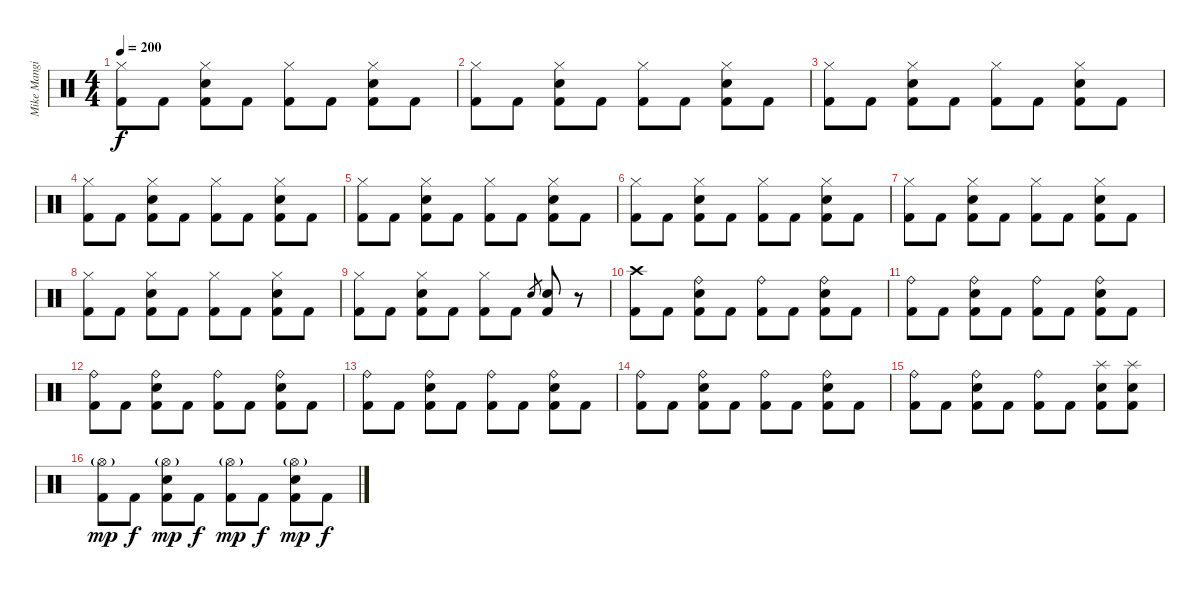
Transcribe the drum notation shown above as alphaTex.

\track ("Mike Mangini" "Mike Mangi") {instrument percussion}
\staff {score}
\articulation defaults
\ts (4 4)
\tempo 200
\clef neutral
\ks c
("Hi-Hat (closed)" "Kick (hit) 2").8{dy f} "Kick (hit) 2".8 ("Hi-Hat (closed)" "Electric Snare (hit)" "Kick (hit) 2").8 "Kick (hit) 2".8 ("Hi-Hat (closed)" "Kick (hit) 2").8 "Kick (hit) 2".8 ("Hi-Hat (closed)" "Electric Snare (hit)" "Kick (hit) 2").8 "Kick (hit) 2".8 |
("Hi-Hat (closed)" "Kick (hit) 2").8 "Kick (hit) 2".8 ("Hi-Hat (closed)" "Electric Snare (hit)" "Kick (hit) 2").8 "Kick (hit) 2".8 ("Hi-Hat (closed)" "Kick (hit) 2").8 "Kick (hit) 2".8 ("Hi-Hat (closed)" "Electric Snare (hit)" "Kick (hit) 2").8 "Kick (hit) 2".8 |
("Hi-Hat (closed)" "Kick (hit) 2").8 "Kick (hit) 2".8 ("Hi-Hat (closed)" "Electric Snare (hit)" "Kick (hit) 2").8 "Kick (hit) 2".8 ("Hi-Hat (closed)" "Kick (hit) 2").8 "Kick (hit) 2".8 ("Hi-Hat (closed)" "Electric Snare (hit)" "Kick (hit) 2").8 "Kick (hit) 2".8 |
("Hi-Hat (closed)" "Kick (hit) 2").8 "Kick (hit) 2".8 ("Hi-Hat (closed)" "Electric Snare (hit)" "Kick (hit) 2").8 "Kick (hit) 2".8 ("Hi-Hat (closed)" "Kick (hit) 2").8 "Kick (hit) 2".8 ("Hi-Hat (closed)" "Electric Snare (hit)" "Kick (hit) 2").8 "Kick (hit) 2".8 |
("Hi-Hat (closed)" "Kick (hit) 2").8 "Kick (hit) 2".8 ("Hi-Hat (closed)" "Electric Snare (hit)" "Kick (hit) 2").8 "Kick (hit) 2".8 ("Hi-Hat (closed)" "Kick (hit) 2").8 "Kick (hit) 2".8 ("Hi-Hat (closed)" "Electric Snare (hit)" "Kick (hit) 2").8 "Kick (hit) 2".8 |
("Hi-Hat (closed)" "Kick (hit) 2").8 "Kick (hit) 2".8 ("Hi-Hat (closed)" "Electric Snare (hit)" "Kick (hit) 2").8 "Kick (hit) 2".8 ("Hi-Hat (closed)" "Kick (hit) 2").8 "Kick (hit) 2".8 ("Hi-Hat (closed)" "Electric Snare (hit)" "Kick (hit) 2").8 "Kick (hit) 2".8 |
("Hi-Hat (closed)" "Kick (hit) 2").8 "Kick (hit) 2".8 ("Hi-Hat (closed)" "Electric Snare (hit)" "Kick (hit) 2").8 "Kick (hit) 2".8 ("Hi-Hat (closed)" "Kick (hit) 2").8 "Kick (hit) 2".8 ("Hi-Hat (closed)" "Electric Snare (hit)" "Kick (hit) 2").8 "Kick (hit) 2".8 |
("Hi-Hat (closed)" "Kick (hit) 2").8 "Kick (hit) 2".8 ("Hi-Hat (closed)" "Electric Snare (hit)" "Kick (hit) 2").8 "Kick (hit) 2".8 ("Hi-Hat (closed)" "Kick (hit) 2").8 "Kick (hit) 2".8 ("Hi-Hat (closed)" "Electric Snare (hit)" "Kick (hit) 2").8 "Kick (hit) 2".8 |
("Hi-Hat (closed)" "Kick (hit) 2").8 "Kick (hit) 2".8 ("Hi-Hat (closed)" "Electric Snare (hit)" "Kick (hit) 2").8 "Kick (hit) 2".8 ("Hi-Hat (closed)" "Kick (hit) 2").8 "Kick (hit) 2".8 "Electric Snare (hit)".8{gr} ("Electric Snare (hit)" "Kick (hit) 2").8 r.8 |
("Crash high (hit)" "Kick (hit) 2").8 "Kick (hit) 2".8 ("Ride (bell)" "Electric Snare (hit)" "Kick (hit) 2").8 "Kick (hit) 2".8 ("Ride (bell)" "Kick (hit) 2").8 "Kick (hit) 2".8 ("Ride (bell)" "Electric Snare (hit)" "Kick (hit) 2").8 "Kick (hit) 2".8 |
("Ride (bell)" "Kick (hit) 2").8 "Kick (hit) 2".8 ("Ride (bell)" "Electric Snare (hit)" "Kick (hit) 2").8 "Kick (hit) 2".8 ("Ride (bell)" "Kick (hit) 2").8 "Kick (hit) 2".8 ("Ride (bell)" "Electric Snare (hit)" "Kick (hit) 2").8 "Kick (hit) 2".8 |
("Ride (bell)" "Kick (hit) 2").8 "Kick (hit) 2".8 ("Ride (bell)" "Electric Snare (hit)" "Kick (hit) 2").8 "Kick (hit) 2".8 ("Ride (bell)" "Kick (hit) 2").8 "Kick (hit) 2".8 ("Ride (bell)" "Electric Snare (hit)" "Kick (hit) 2").8 "Kick (hit) 2".8 |
("Ride (bell)" "Kick (hit) 2").8 "Kick (hit) 2".8 ("Ride (bell)" "Electric Snare (hit)" "Kick (hit) 2").8 "Kick (hit) 2".8 ("Ride (bell)" "Kick (hit) 2").8 "Kick (hit) 2".8 ("Ride (bell)" "Electric Snare (hit)" "Kick (hit) 2").8 "Kick (hit) 2".8 |
("Ride (bell)" "Kick (hit) 2").8 "Kick (hit) 2".8 ("Ride (bell)" "Electric Snare (hit)" "Kick (hit) 2").8 "Kick (hit) 2".8 ("Ride (bell)" "Kick (hit) 2").8 "Kick (hit) 2".8 ("Ride (bell)" "Electric Snare (hit)" "Kick (hit) 2").8 "Kick (hit) 2".8 |
("Ride (bell)" "Kick (hit) 2").8 "Kick (hit) 2".8 ("Ride (bell)" "Electric Snare (hit)" "Kick (hit) 2").8 "Kick (hit) 2".8 ("Ride (bell)" "Kick (hit) 2").8 "Kick (hit) 2".8 ("Splash (hit)" "Electric Snare (hit)" "Kick (hit) 2").8 ("Splash (hit)" "Electric Snare (hit)" "Kick (hit) 2").8 |
("Hi-Hat (open)"{g} "Kick (hit) 2").8{dy mp} "Kick (hit) 2".8{dy f} ("Hi-Hat (open)"{g} "Electric Snare (hit)" "Kick (hit) 2").8{dy mp} "Kick (hit) 2".8{dy f} ("Hi-Hat (open)"{g} "Kick (hit) 2").8{dy mp} "Kick (hit) 2".8{dy f} ("Hi-Hat (open)"{g} "Electric Snare (hit)" "Kick (hit) 2").8{dy mp} "Kick (hit) 2".8{dy f}
